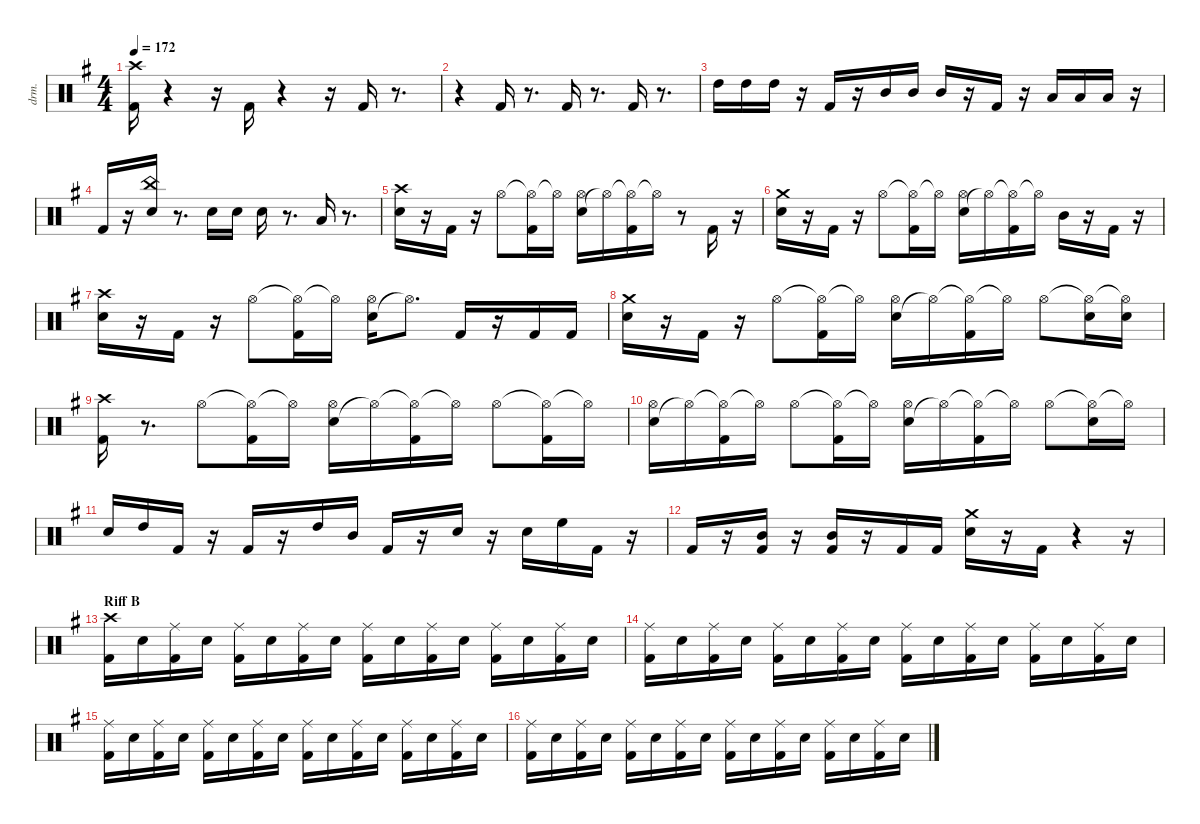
\defaultSystemsLayout 4
\hideDynamics
\bracketExtendMode nobrackets
\otherSystemsTrackNameOrientation horizontal
\track ("Shinya" "drm.") {instrument percussion}
\staff {score}
\articulation defaults
\ts (4 4)
\tempo 172
\clef neutral
\ks eminor
("Kick (hit) 2"{acc forcenatural} "Crash high (hit)"{acc #}).16{dy fff beam Down} r.4{beam Down} r.16{beam Down} "Kick (hit) 2"{acc forcenatural}.16{beam Up} r.4{beam Up} r.16{beam Up} "Kick (hit) 2"{acc forcenatural}.16{beam Up} r.8{d beam Up} |
r.4{beam Down} "Kick (hit) 2"{acc forcenatural}.16{beam Up} r.8{d beam Up} "Kick (hit) 2"{acc forcenatural}.16{beam Up} r.8{d beam Up} "Kick (hit) 2"{acc forcenatural}.16{beam Up} r.8{d beam Up} |
"High Tom (hit)"{acc forcenatural}.16{beam Down} "High Tom (hit)"{acc forcenatural}.16{beam Down} "High Tom (hit)"{acc forcenatural}.16{beam Down} r.16{beam Down} "Kick (hit) 2"{acc forcenatural}.16{beam Up} r.16{beam Up} "Mid Tom (hit)"{acc forcenatural}.16{beam Up} "Mid Tom (hit)"{acc forcenatural}.16{beam Up} "Mid Tom (hit)"{acc forcenatural}.16{beam Up} r.16{beam Up} "Kick (hit) 2"{acc forcenatural}.16{beam Up} r.16{beam Up} "Low Tom (hit)"{acc forcenatural}.16{beam Up} "Low Tom (hit)"{acc forcenatural}.16{beam Up} "Low Tom (hit)"{acc forcenatural}.16{beam Up} r.16{beam Up} |
"Kick (hit) 2"{acc forcenatural}.16{beam Up} r.16{beam Up} ("Snare (hit) 2"{acc forcenatural} "China (hit)"{acc forcenatural}).16{beam Down} r.8{d beam Down} "Snare (hit) 2"{acc forcenatural}.16{beam Down} "Snare (hit) 2"{acc forcenatural}.16{beam Down} "Snare (hit) 2"{acc forcenatural}.16{beam Down} r.8{d beam Down} "Low Tom (hit)"{acc forcenatural}.16{beam Up} r.8{d beam Up} |
("Snare (hit) 2"{acc forcenatural} "Crash high (hit)"{acc #}).16{beam Down} r.16{beam Down} "Kick (hit) 2"{acc forcenatural}.16{beam Up} r.16{beam Up} "Hi-Hat (open)"{acc #}.8{beam Down} ("Hi-Hat (open)"{t acc #} "Kick (hit) 2"{acc forcenatural}).16{beam Down} "Hi-Hat (open)"{t acc #}.16{beam Down} ("Snare (hit) 2"{acc forcenatural} "Hi-Hat (open)"{acc #}).16{beam Down} "Hi-Hat (open)"{t acc #}.16{beam Down} ("Hi-Hat (open)"{t acc #} "Kick (hit) 2"{acc forcenatural}).16{beam Down} "Hi-Hat (open)"{t acc #}.16{beam Down} r.8{beam Down} "Kick (hit) 2"{acc forcenatural}.16{beam Up} r.16{beam Up} |
("Snare (hit) 2"{acc forcenatural} "Crash medium (hit)"{acc forcenatural}).16{beam Down} r.16{beam Down} "Kick (hit) 2"{acc forcenatural}.16{beam Up} r.16{beam Up} "Hi-Hat (open)"{acc #}.8{beam Down} ("Hi-Hat (open)"{t acc #} "Kick (hit) 2"{acc forcenatural}).16{beam Down} "Hi-Hat (open)"{t acc #}.16{beam Down} ("Snare (hit) 2"{acc forcenatural} "Hi-Hat (open)"{acc #}).16{beam Down} "Hi-Hat (open)"{t acc #}.16{beam Down} ("Hi-Hat (open)"{t acc #} "Kick (hit) 2"{acc forcenatural}).16{beam Down} "Hi-Hat (open)"{t acc #}.16{beam Down} "Mid Tom (hit)"{acc forcenatural}.16{beam Down} r.16{beam Down} "Kick (hit) 2"{acc forcenatural}.16{beam Up} r.16{beam Up} |
("Snare (hit) 2"{acc forcenatural} "Crash high (hit)"{acc #}).16{beam Down} r.16{beam Down} "Kick (hit) 2"{acc forcenatural}.16{beam Up} r.16{beam Up} "Hi-Hat (open)"{acc #}.8{beam Down} ("Hi-Hat (open)"{t acc #} "Kick (hit) 2"{acc forcenatural}).16{beam Down} "Hi-Hat (open)"{t acc #}.16{beam Down} ("Snare (hit) 2"{acc forcenatural} "Hi-Hat (open)"{acc #}).16{beam Down} "Hi-Hat (open)"{t acc #}.8{d beam Down} "Kick (hit) 2"{acc forcenatural}.16{beam Up} r.16{beam Up} "Kick (hit) 2"{acc forcenatural}.16{beam Up} "Kick (hit) 2"{acc forcenatural}.16{beam Up} |
("Snare (hit) 2"{acc forcenatural} "Crash medium (hit)"{acc forcenatural}).16{beam Down} r.16{beam Down} "Kick (hit) 2"{acc forcenatural}.16{beam Up} r.16{beam Up} "Hi-Hat (open)"{acc #}.8{beam Down} ("Hi-Hat (open)"{t acc #} "Kick (hit) 2"{acc forcenatural}).16{beam Down} "Hi-Hat (open)"{t acc #}.16{beam Down} ("Snare (hit) 2"{acc forcenatural} "Hi-Hat (open)"{acc #}).16{beam Down} "Hi-Hat (open)"{t acc #}.16{beam Down} ("Hi-Hat (open)"{t acc #} "Kick (hit) 2"{acc forcenatural}).16{beam Down} "Hi-Hat (open)"{t acc #}.16{beam Down} "Hi-Hat (open)"{acc #}.8{beam Down} ("Hi-Hat (open)"{t acc #} "Snare (hit) 2"{acc forcenatural}).16{beam Down} ("Hi-Hat (open)"{t acc #} "Snare (hit) 2"{acc forcenatural}).16{beam Down} |
("Kick (hit) 2"{acc forcenatural} "Crash high (hit)"{acc #}).16{beam Down} r.8{d beam Down} "Hi-Hat (open)"{acc #}.8{beam Down} ("Hi-Hat (open)"{t acc #} "Kick (hit) 2"{acc forcenatural}).16{beam Down} "Hi-Hat (open)"{t acc #}.16{beam Down} ("Snare (hit) 2"{acc forcenatural} "Hi-Hat (open)"{acc #}).16{beam Down} "Hi-Hat (open)"{t acc #}.16{beam Down} ("Hi-Hat (open)"{t acc #} "Kick (hit) 2"{acc forcenatural}).16{beam Down} "Hi-Hat (open)"{t acc #}.16{beam Down} "Hi-Hat (open)"{acc #}.8{beam Down} ("Hi-Hat (open)"{t acc #} "Kick (hit) 2"{acc forcenatural}).16{beam Down} "Hi-Hat (open)"{t acc #}.16{beam Down} |
("Snare (hit) 2"{acc forcenatural} "Hi-Hat (open)"{acc #}).16{beam Down} "Hi-Hat (open)"{t acc #}.16{beam Down} ("Hi-Hat (open)"{t acc #} "Kick (hit) 2"{acc forcenatural}).16{beam Down} "Hi-Hat (open)"{t acc #}.16{beam Down} "Hi-Hat (open)"{acc #}.8{beam Down} ("Hi-Hat (open)"{t acc #} "Kick (hit) 2"{acc forcenatural}).16{beam Down} "Hi-Hat (open)"{t acc #}.16{beam Down} ("Snare (hit) 2"{acc forcenatural} "Hi-Hat (open)"{acc #}).16{beam Down} "Hi-Hat (open)"{t acc #}.16{beam Down} ("Hi-Hat (open)"{t acc #} "Kick (hit) 2"{acc forcenatural}).16{beam Down} "Hi-Hat (open)"{t acc #}.16{beam Down} "Hi-Hat (open)"{acc #}.8{beam Down} ("Hi-Hat (open)"{t acc #} "Snare (hit) 2"{acc forcenatural}).16{beam Down} "Hi-Hat (open)"{t acc #}.16{beam Down} |
"Snare (hit) 2"{acc forcenatural}.16{beam Up} "High Tom (hit)"{acc forcenatural}.16{beam Up} "Kick (hit) 2"{acc forcenatural}.16{beam Up} r.16{beam Up} "Kick (hit) 2"{acc forcenatural}.16{beam Up} r.16{beam Up} "High Tom (hit)"{acc forcenatural}.16{beam Down} "Mid Tom (hit)"{acc forcenatural}.16{beam Down} "Kick (hit) 2"{acc forcenatural}.16{beam Up} r.16{beam Up} "Snare (hit) 2"{acc forcenatural}.16{beam Down} r.16{beam Down} "Snare (hit) 2"{acc forcenatural}.16{beam Down} "High Floor Tom (hit)"{acc forcenatural}.16{beam Down} "Kick (hit) 2"{acc forcenatural}.16{beam Down} r.16{beam Down} |
"Kick (hit) 2"{acc forcenatural}.16{beam Up} r.16{beam Up} ("Kick (hit) 2"{acc forcenatural} "Mid Tom (hit)"{acc forcenatural}).16{beam Up} r.16{beam Up} ("Kick (hit) 2"{acc forcenatural} "Mid Tom (hit)"{acc forcenatural}).16{beam Up} r.16{beam Up} "Kick (hit) 2"{acc forcenatural}.16{beam Up} "Kick (hit) 2"{acc forcenatural}.16{beam Up} ("Snare (hit) 2"{acc forcenatural} "Crash medium (hit)"{acc forcenatural}).16{beam Down} r.16{beam Down} "Kick (hit) 2"{acc forcenatural}.16{beam Up} r.4{beam Up} r.16{beam Up} |
\section ("" "Riff B")
("Kick (hit) 2"{acc forcenatural} "Crash high (hit)"{acc #}).16{beam Down} "Snare (hit) 2"{acc forcenatural}.16{beam Down} ("Kick (hit) 2"{acc forcenatural} "Ride (middle)"{acc #}).16{beam Down} "Snare (hit) 2"{acc forcenatural}.16{beam Down} ("Kick (hit) 2"{acc forcenatural} "Ride (middle)"{acc #}).16{beam Down} "Snare (hit) 2"{acc forcenatural}.16{beam Down} ("Kick (hit) 2"{acc forcenatural} "Ride (middle)"{acc #}).16{beam Down} "Snare (hit) 2"{acc forcenatural}.16{beam Down} ("Kick (hit) 2"{acc forcenatural} "Ride (middle)"{acc #}).16{beam Down} "Snare (hit) 2"{acc forcenatural}.16{beam Down} ("Kick (hit) 2"{acc forcenatural} "Ride (middle)"{acc #}).16{beam Down} "Snare (hit) 2"{acc forcenatural}.16{beam Down} ("Kick (hit) 2"{acc forcenatural} "Ride (middle)"{acc #}).16{beam Down} "Snare (hit) 2"{acc forcenatural}.16{beam Down} ("Kick (hit) 2"{acc forcenatural} "Ride (middle)"{acc #}).16{beam Down} "Snare (hit) 2"{acc forcenatural}.16{beam Down} |
("Kick (hit) 2"{acc forcenatural} "Ride (middle)"{acc #}).16{beam Down} "Snare (hit) 2"{acc forcenatural}.16{beam Down} ("Kick (hit) 2"{acc forcenatural} "Ride (middle)"{acc #}).16{beam Down} "Snare (hit) 2"{acc forcenatural}.16{beam Down} ("Kick (hit) 2"{acc forcenatural} "Ride (middle)"{acc #}).16{beam Down} "Snare (hit) 2"{acc forcenatural}.16{beam Down} ("Kick (hit) 2"{acc forcenatural} "Ride (middle)"{acc #}).16{beam Down} "Snare (hit) 2"{acc forcenatural}.16{beam Down} ("Kick (hit) 2"{acc forcenatural} "Ride (middle)"{acc #}).16{beam Down} "Snare (hit) 2"{acc forcenatural}.16{beam Down} ("Kick (hit) 2"{acc forcenatural} "Ride (middle)"{acc #}).16{beam Down} "Snare (hit) 2"{acc forcenatural}.16{beam Down} ("Kick (hit) 2"{acc forcenatural} "Ride (middle)"{acc #}).16{beam Down} "Snare (hit) 2"{acc forcenatural}.16{beam Down} ("Kick (hit) 2"{acc forcenatural} "Ride (middle)"{acc #}).16{beam Down} "Snare (hit) 2"{acc forcenatural}.16{beam Down} |
("Kick (hit) 2"{acc forcenatural} "Ride (middle)"{acc #}).16{beam Down} "Snare (hit) 2"{acc forcenatural}.16{beam Down} ("Kick (hit) 2"{acc forcenatural} "Ride (middle)"{acc #}).16{beam Down} "Snare (hit) 2"{acc forcenatural}.16{beam Down} ("Kick (hit) 2"{acc forcenatural} "Ride (middle)"{acc #}).16{beam Down} "Snare (hit) 2"{acc forcenatural}.16{beam Down} ("Kick (hit) 2"{acc forcenatural} "Ride (middle)"{acc #}).16{beam Down} "Snare (hit) 2"{acc forcenatural}.16{beam Down} ("Kick (hit) 2"{acc forcenatural} "Ride (middle)"{acc #}).16{beam Down} "Snare (hit) 2"{acc forcenatural}.16{beam Down} ("Kick (hit) 2"{acc forcenatural} "Ride (middle)"{acc #}).16{beam Down} "Snare (hit) 2"{acc forcenatural}.16{beam Down} ("Kick (hit) 2"{acc forcenatural} "Ride (middle)"{acc #}).16{beam Down} "Snare (hit) 2"{acc forcenatural}.16{beam Down} ("Kick (hit) 2"{acc forcenatural} "Ride (middle)"{acc #}).16{beam Down} "Snare (hit) 2"{acc forcenatural}.16{beam Down} |
("Kick (hit) 2"{acc forcenatural} "Ride (middle)"{acc #}).16{beam Down} "Snare (hit) 2"{acc forcenatural}.16{beam Down} ("Kick (hit) 2"{acc forcenatural} "Ride (middle)"{acc #}).16{beam Down} "Snare (hit) 2"{acc forcenatural}.16{beam Down} ("Kick (hit) 2"{acc forcenatural} "Ride (middle)"{acc #}).16{beam Down} "Snare (hit) 2"{acc forcenatural}.16{beam Down} ("Kick (hit) 2"{acc forcenatural} "Ride (middle)"{acc #}).16{beam Down} "Snare (hit) 2"{acc forcenatural}.16{beam Down} ("Kick (hit) 2"{acc forcenatural} "Ride (middle)"{acc #}).16{beam Down} "Snare (hit) 2"{acc forcenatural}.16{beam Down} ("Kick (hit) 2"{acc forcenatural} "Ride (middle)"{acc #}).16{beam Down} "Snare (hit) 2"{acc forcenatural}.16{beam Down} ("Kick (hit) 2"{acc forcenatural} "Ride (middle)"{acc #}).16{beam Down} "Snare (hit) 2"{acc forcenatural}.16{beam Down} ("Kick (hit) 2"{acc forcenatural} "Ride (middle)"{acc #}).16{beam Down} "Snare (hit) 2"{acc forcenatural}.16{beam Down}
